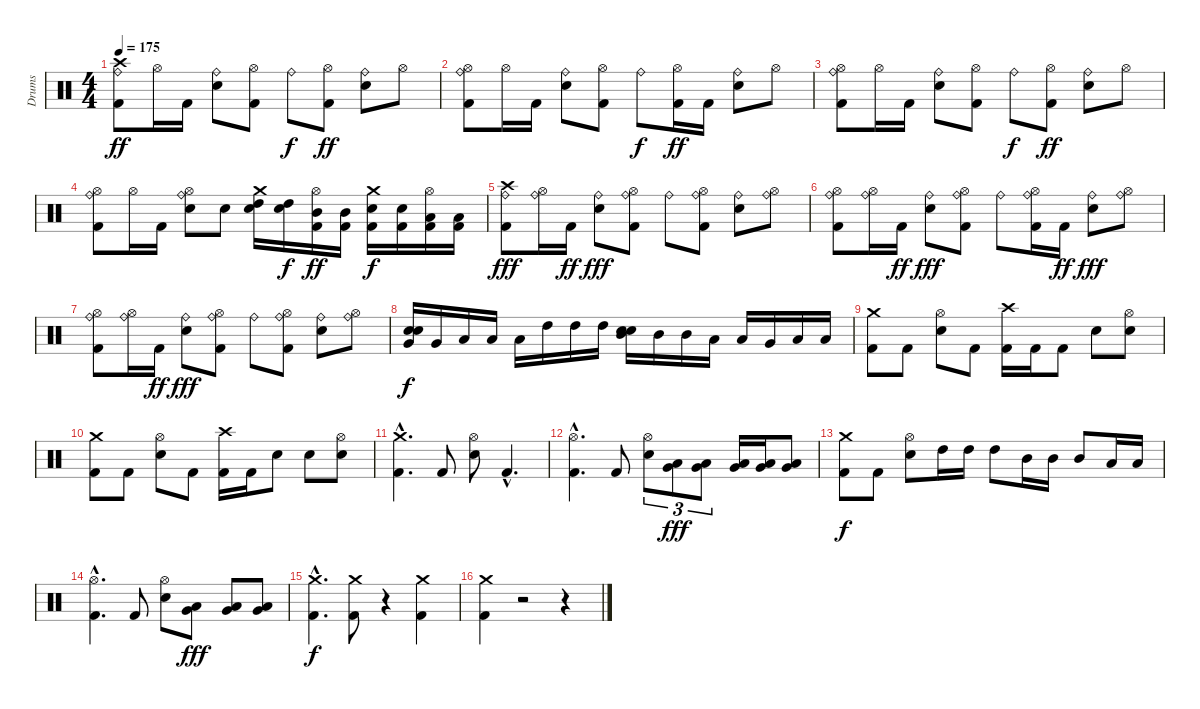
\track ("Drums" "Drums") {instrument percussion}
\staff {score}
\articulation defaults
\ts (4 4)
\tempo 175
\clef neutral
\ks c
("Kick (hit) 2" "Crash high (hit)" "Ride (bell)").8{dy ff} "Hi-Hat (open)".16 "Kick (hit) 2".16 ("Electric Snare (hit)" "Ride (bell)").8 ("Kick (hit) 2" "Hi-Hat (open)").8 "Ride (bell)".8{dy f} ("Kick (hit) 2" "Hi-Hat (open)").8{dy ff} ("Electric Snare (hit)" "Ride (bell)").8 "Hi-Hat (open)".8 |
("Kick (hit) 2" "Hi-Hat (open)" "Ride (bell)").8 "Hi-Hat (open)".16 "Kick (hit) 2".16 ("Electric Snare (hit)" "Ride (bell)").8 ("Kick (hit) 2" "Hi-Hat (open)").8 "Ride (bell)".8{dy f} ("Kick (hit) 2" "Hi-Hat (open)").16{dy ff} "Kick (hit) 2".16 ("Electric Snare (hit)" "Ride (bell)").8 "Hi-Hat (open)".8 |
("Kick (hit) 2" "Hi-Hat (open)" "Ride (bell)").8 "Hi-Hat (open)".16 "Kick (hit) 2".16 ("Electric Snare (hit)" "Ride (bell)").8 ("Kick (hit) 2" "Hi-Hat (open)").8 "Ride (bell)".8{dy f} ("Kick (hit) 2" "Hi-Hat (open)").8{dy ff} ("Electric Snare (hit)" "Ride (bell)").8 "Hi-Hat (open)".8 |
("Kick (hit) 2" "Hi-Hat (open)" "Ride (bell)").8 "Hi-Hat (open)".16 "Kick (hit) 2".16 ("Hi-Hat (open)" "Electric Snare (hit)" "Ride (bell)").8 "Snare (hit) 2".8 ("Electric Snare (hit)" "High Tom (hit)" "Crash medium (hit)").16 ("Electric Snare (hit)" "High Tom (hit)").16{dy f} ("Kick (hit) 2" "Mid Tom (hit)" "Hi-Hat (open)").16{dy ff} ("Kick (hit) 2" "Mid Tom (hit)").16 ("Kick (hit) 2" "Electric Snare (hit)" "Crash medium (hit)").16{dy f} ("Kick (hit) 2" "Electric Snare (hit)").16 ("Kick (hit) 2" "Low Tom (hit)" "Hi-Hat (open)").16 ("Kick (hit) 2" "Low Tom (hit)").16 |
("Kick (hit) 2" "Crash high (hit)" "Ride (bell)").8{dy fff} ("Hi-Hat (open)" "Ride (bell)").16 "Kick (hit) 2".16{dy ff} ("Electric Snare (hit)" "Ride (bell)").8{dy fff} ("Kick (hit) 2" "Hi-Hat (open)" "Ride (bell)").8 "Ride (bell)".8 ("Kick (hit) 2" "Hi-Hat (open)" "Ride (bell)").8 ("Electric Snare (hit)" "Ride (bell)").8 ("Hi-Hat (open)" "Ride (bell)").8 |
("Kick (hit) 2" "Hi-Hat (open)" "Ride (bell)").8 ("Hi-Hat (open)" "Ride (bell)").16 "Kick (hit) 2".16{dy ff} ("Electric Snare (hit)" "Ride (bell)").8{dy fff} ("Kick (hit) 2" "Hi-Hat (open)" "Ride (bell)").8 "Ride (bell)".8 ("Kick (hit) 2" "Hi-Hat (open)" "Ride (bell)").16 "Kick (hit) 2".16{dy ff} ("Electric Snare (hit)" "Ride (bell)").8{dy fff} ("Hi-Hat (open)" "Ride (bell)").8 |
("Kick (hit) 2" "Hi-Hat (open)" "Ride (bell)").8 ("Hi-Hat (open)" "Ride (bell)").16 "Kick (hit) 2".16{dy ff} ("Electric Snare (hit)" "Ride (bell)").8{dy fff} ("Kick (hit) 2" "Hi-Hat (open)" "Ride (bell)").8 "Ride (bell)".8 ("Kick (hit) 2" "Hi-Hat (open)" "Ride (bell)").8 ("Electric Snare (hit)" "Ride (bell)").8 ("Hi-Hat (open)" "Ride (bell)").8 |
("Electric Snare (hit)" "Very Low Tom (hit)" "Electric Snare (hit)").16{dy f} "Very Low Tom (hit)".16 "Low Tom (hit)".16 "Low Tom (hit)".16 "Low Tom (hit)".16 "High Tom (hit)".16 "High Tom (hit)".16 "High Tom (hit)".16 ("Electric Snare (hit)" "Mid Tom (hit)" "Electric Snare (hit)").16 "Mid Tom (hit)".16 "Mid Tom (hit)".16 "Low Tom (hit)".16 "Low Tom (hit)".16 "Very Low Tom (hit)".16 "Low Floor Tom (hit)".16 "Low Floor Tom (hit)".16 |
("Kick (hit) 2" "Crash medium (hit)").8 "Kick (hit) 2".8 ("Electric Snare (hit)" "Hi-Hat (open)").8 "Kick (hit) 2".8 ("Kick (hit) 2" "Crash high (hit)").16 "Kick (hit) 2".16 "Kick (hit) 2".8 "Electric Snare (hit)".8 ("Electric Snare (hit)" "Hi-Hat (open)").8 |
("Kick (hit) 2" "Crash medium (hit)").8 "Kick (hit) 2".8 ("Electric Snare (hit)" "Hi-Hat (open)").8 "Kick (hit) 2".8 ("Kick (hit) 2" "Crash high (hit)").16 "Kick (hit) 2".16 "Electric Snare (hit)".8 "Snare (hit) 2".8 ("Snare (hit) 2" "Hi-Hat (open)").8 |
("Kick (hit) 2"{hac} "Crash medium (hit)"{hac}).4{d} "Kick (hit) 2".8 ("Electric Snare (hit)" "Hi-Hat (open)").8 "Kick (hit) 2"{hac}.4{d} |
("Kick (hit) 2"{hac} "Hi-Hat (open)"{hac}).4{d} "Kick (hit) 2".8 ("Electric Snare (hit)" "Hi-Hat (open)").8{tu (3 2)} ("Low Tom (hit)" "Very Low Tom (hit)").8{tu (3 2) dy fff} ("Low Tom (hit)" "Very Low Tom (hit)").8{tu (3 2)} ("Low Tom (hit)" "Very Low Tom (hit)").16 ("Low Tom (hit)" "Very Low Tom (hit)").16 ("Low Tom (hit)" "Very Low Tom (hit)").8 |
("Kick (hit) 2" "Crash medium (hit)").8{dy f} "Kick (hit) 2".8 ("Electric Snare (hit)" "Hi-Hat (open)").8 "High Tom (hit)".16 "High Tom (hit)".16 "High Tom (hit)".8 "Mid Tom (hit)".16 "Mid Tom (hit)".16 "Mid Tom (hit)".8 "Low Tom (hit)".16 "Low Tom (hit)".16 |
("Kick (hit) 2"{hac} "Hi-Hat (open)"{hac}).4{d} "Kick (hit) 2".8 ("Electric Snare (hit)" "Hi-Hat (open)").8 ("Low Tom (hit)" "Very Low Tom (hit)").8{dy fff} ("Low Tom (hit)" "Very Low Tom (hit)").8 ("Low Tom (hit)" "Very Low Tom (hit)").8 |
("Kick (hit) 2"{hac} "Crash medium (hit)"{hac}).4{d dy f} ("Kick (hit) 2" "Crash medium (hit)").8 r.4 ("Kick (hit) 2" "Crash medium (hit)").4 |
("Crash medium (hit)" "Kick (hit) 2").4 r.2 r.4
